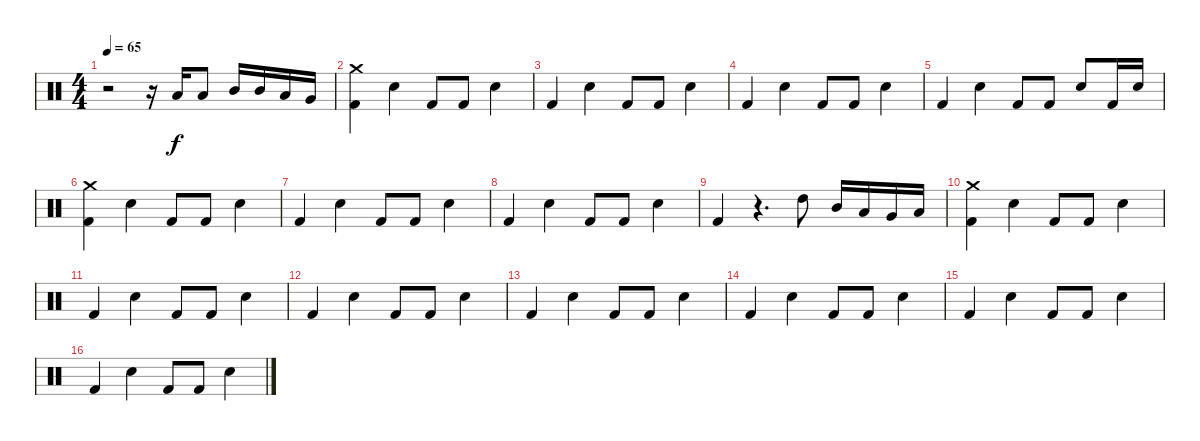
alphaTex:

\track "" {instrument percussion}
\staff {score}
\articulation defaults
\ts (4 4)
\tempo 65
\clef neutral
\ks c
r.2{dy f} r.16 "Low Tom (hit)".16 "Low Tom (hit)".8 "Mid Tom (hit)".16 "Mid Tom (hit)".16 "Low Tom (hit)".16 "Very Low Tom (hit)".16 |
("Kick (hit) 2" "Crash medium (hit)").4 "Snare (hit) 2".4 "Kick (hit) 2".8 "Kick (hit) 2".8 "Snare (hit) 2".4 |
"Kick (hit) 2".4 "Snare (hit) 2".4 "Kick (hit) 2".8 "Kick (hit) 2".8 "Snare (hit) 2".4 |
"Kick (hit) 2".4 "Snare (hit) 2".4 "Kick (hit) 2".8 "Kick (hit) 2".8 "Snare (hit) 2".4 |
"Kick (hit) 2".4 "Snare (hit) 2".4 "Kick (hit) 2".8 "Kick (hit) 2".8 "Snare (hit) 2".8 "Kick (hit) 2".16 "Snare (hit) 2".16 |
("Kick (hit) 2" "Crash medium (hit)").4 "Snare (hit) 2".4 "Kick (hit) 2".8 "Kick (hit) 2".8 "Snare (hit) 2".4 |
"Kick (hit) 2".4 "Snare (hit) 2".4 "Kick (hit) 2".8 "Kick (hit) 2".8 "Snare (hit) 2".4 |
"Kick (hit) 2".4 "Snare (hit) 2".4 "Kick (hit) 2".8 "Kick (hit) 2".8 "Snare (hit) 2".4 |
"Kick (hit) 2".4 r.4{d} "High Tom (hit)".8 "Mid Tom (hit)".16 "Low Tom (hit)".16 "Very Low Tom (hit)".16 "Low Floor Tom (hit)".16 |
("Kick (hit) 2" "Crash medium (hit)").4 "Snare (hit) 2".4 "Kick (hit) 2".8 "Kick (hit) 2".8 "Snare (hit) 2".4 |
"Kick (hit) 2".4 "Snare (hit) 2".4 "Kick (hit) 2".8 "Kick (hit) 2".8 "Snare (hit) 2".4 |
"Kick (hit) 2".4 "Snare (hit) 2".4 "Kick (hit) 2".8 "Kick (hit) 2".8 "Snare (hit) 2".4 |
"Kick (hit) 2".4 "Snare (hit) 2".4 "Kick (hit) 2".8 "Kick (hit) 2".8 "Snare (hit) 2".4 |
"Kick (hit) 2".4 "Snare (hit) 2".4 "Kick (hit) 2".8 "Kick (hit) 2".8 "Snare (hit) 2".4 |
"Kick (hit) 2".4 "Snare (hit) 2".4 "Kick (hit) 2".8 "Kick (hit) 2".8 "Snare (hit) 2".4 |
"Kick (hit) 2".4 "Snare (hit) 2".4 "Kick (hit) 2".8 "Kick (hit) 2".8 "Snare (hit) 2".4
